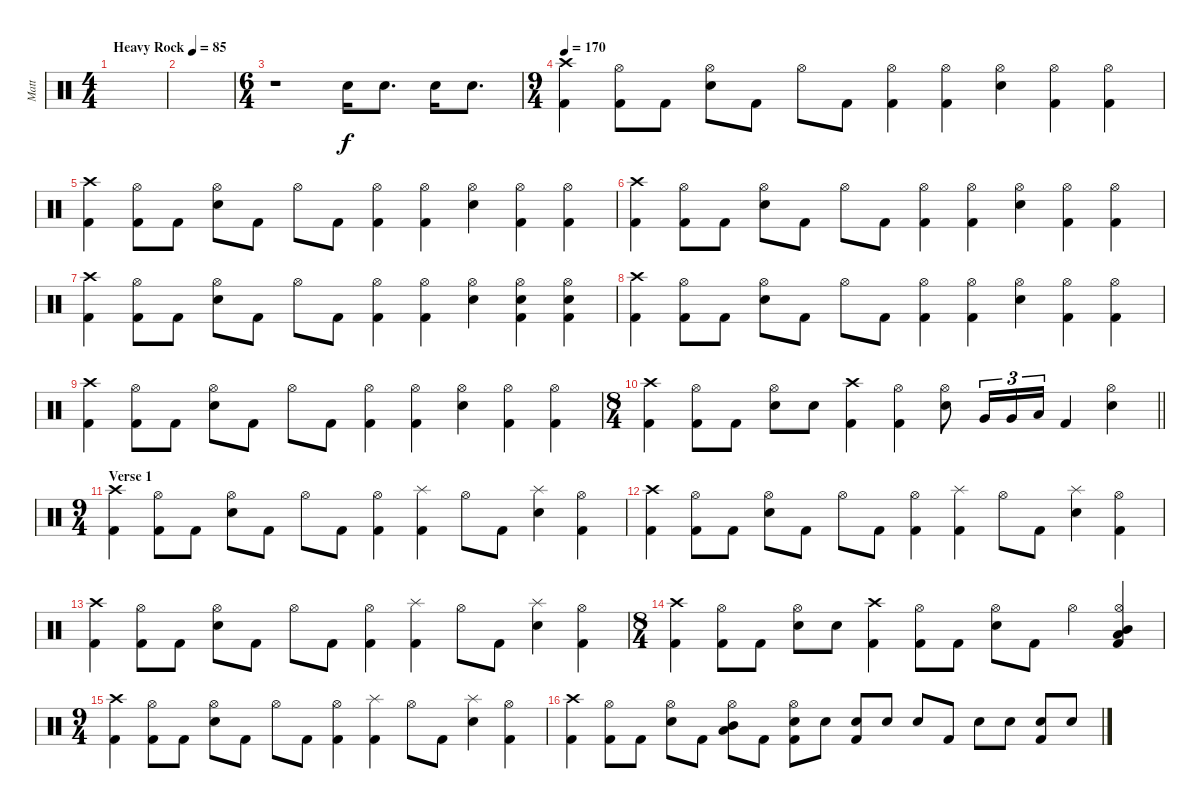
\track ("Matt" "Matt") {instrument percussion}
\staff
\articulation defaults
\ts (4 4)
\tempo (85 "Heavy Rock")
\clef neutral
\ks c
|
|
\ts (6 4)
r.1 "Snare (hit) 2".16 "Snare (hit) 2".8{d} "Snare (hit) 2".16 "Snare (hit) 2".8{d} |
\ts (9 4)
\tempo 170
("Crash high (hit)" "Kick (hit) 2").4 ("Hi-Hat (open)" "Kick (hit) 2").8 "Kick (hit) 2".8 ("Snare (hit) 2" "Hi-Hat (open)").8 "Kick (hit) 2".8 "Hi-Hat (open)".8 "Kick (hit) 2".8 ("Hi-Hat (open)" "Kick (hit) 2").4 ("Hi-Hat (open)" "Kick (hit) 2").4 ("Snare (hit) 2" "Hi-Hat (open)").4 ("Hi-Hat (open)" "Kick (hit) 2").4 ("Hi-Hat (open)" "Kick (hit) 2").4 |
("Crash high (hit)" "Kick (hit) 2").4 ("Hi-Hat (open)" "Kick (hit) 2").8 "Kick (hit) 2".8 ("Snare (hit) 2" "Hi-Hat (open)").8 "Kick (hit) 2".8 "Hi-Hat (open)".8 "Kick (hit) 2".8 ("Hi-Hat (open)" "Kick (hit) 2").4 ("Hi-Hat (open)" "Kick (hit) 2").4 ("Snare (hit) 2" "Hi-Hat (open)").4 ("Hi-Hat (open)" "Kick (hit) 2").4 ("Hi-Hat (open)" "Kick (hit) 2").4 |
("Crash high (hit)" "Kick (hit) 2").4 ("Hi-Hat (open)" "Kick (hit) 2").8 "Kick (hit) 2".8 ("Snare (hit) 2" "Hi-Hat (open)").8 "Kick (hit) 2".8 "Hi-Hat (open)".8 "Kick (hit) 2".8 ("Hi-Hat (open)" "Kick (hit) 2").4 ("Hi-Hat (open)" "Kick (hit) 2").4 ("Snare (hit) 2" "Hi-Hat (open)").4 ("Hi-Hat (open)" "Kick (hit) 2").4 ("Hi-Hat (open)" "Kick (hit) 2").4 |
("Crash high (hit)" "Kick (hit) 2").4 ("Hi-Hat (open)" "Kick (hit) 2").8 "Kick (hit) 2".8 ("Snare (hit) 2" "Hi-Hat (open)").8 "Kick (hit) 2".8 "Hi-Hat (open)".8 "Kick (hit) 2".8 ("Hi-Hat (open)" "Kick (hit) 2").4 ("Hi-Hat (open)" "Kick (hit) 2").4 ("Snare (hit) 2" "Hi-Hat (open)").4 ("Snare (hit) 2" "Hi-Hat (open)" "Kick (hit) 2").4 ("Snare (hit) 2" "Hi-Hat (open)" "Kick (hit) 2").4 |
("Crash high (hit)" "Kick (hit) 2").4 ("Hi-Hat (open)" "Kick (hit) 2").8 "Kick (hit) 2".8 ("Snare (hit) 2" "Hi-Hat (open)").8 "Kick (hit) 2".8 "Hi-Hat (open)".8 "Kick (hit) 2".8 ("Hi-Hat (open)" "Kick (hit) 2").4 ("Hi-Hat (open)" "Kick (hit) 2").4 ("Snare (hit) 2" "Hi-Hat (open)").4 ("Hi-Hat (open)" "Kick (hit) 2").4 ("Hi-Hat (open)" "Kick (hit) 2").4 |
("Crash high (hit)" "Kick (hit) 2").4 ("Hi-Hat (open)" "Kick (hit) 2").8 "Kick (hit) 2".8 ("Snare (hit) 2" "Hi-Hat (open)").8 "Kick (hit) 2".8 "Hi-Hat (open)".8 "Kick (hit) 2".8 ("Hi-Hat (open)" "Kick (hit) 2").4 ("Hi-Hat (open)" "Kick (hit) 2").4 ("Snare (hit) 2" "Hi-Hat (open)").4 ("Hi-Hat (open)" "Kick (hit) 2").4 ("Hi-Hat (open)" "Kick (hit) 2").4 |
\ts (8 4)
\barLineRight lightlight
("Crash high (hit)" "Kick (hit) 2").4 ("Hi-Hat (open)" "Kick (hit) 2").8 "Kick (hit) 2".8 ("Snare (hit) 2" "Hi-Hat (open)").8 "Snare (hit) 2".8 ("Crash high (hit)" "Kick (hit) 2").4 ("Hi-Hat (open)" "Kick (hit) 2").4 ("Snare (hit) 2" "Hi-Hat (open)").8 "Very Low Tom (hit)".16{tu (3 2)} "Very Low Tom (hit)".16{tu (3 2)} "Low Floor Tom (hit)".16{tu (3 2)} "Kick (hit) 2".4 ("Snare (hit) 2" "Hi-Hat (open)").4 |
\ts (9 4)
\section ("" "Verse 1")
("Crash high (hit)" "Kick (hit) 2").4 ("Hi-Hat (open)" "Kick (hit) 2").8 "Kick (hit) 2".8 ("Snare (hit) 2" "Hi-Hat (open)").8 "Kick (hit) 2".8 "Hi-Hat (open)".8 "Kick (hit) 2".8 ("Hi-Hat (open)" "Kick (hit) 2").4 ("Splash (hit)" "Kick (hit) 2").4 "Hi-Hat (open)".8 "Kick (hit) 2".8 ("Splash (hit)" "Snare (hit) 2").4 ("Hi-Hat (open)" "Kick (hit) 2").4 |
("Crash high (hit)" "Kick (hit) 2").4 ("Hi-Hat (open)" "Kick (hit) 2").8 "Kick (hit) 2".8 ("Snare (hit) 2" "Hi-Hat (open)").8 "Kick (hit) 2".8 "Hi-Hat (open)".8 "Kick (hit) 2".8 ("Hi-Hat (open)" "Kick (hit) 2").4 ("Splash (hit)" "Kick (hit) 2").4 "Hi-Hat (open)".8 "Kick (hit) 2".8 ("Splash (hit)" "Snare (hit) 2").4 ("Hi-Hat (open)" "Kick (hit) 2").4 |
("Crash high (hit)" "Kick (hit) 2").4 ("Hi-Hat (open)" "Kick (hit) 2").8 "Kick (hit) 2".8 ("Snare (hit) 2" "Hi-Hat (open)").8 "Kick (hit) 2".8 "Hi-Hat (open)".8 "Kick (hit) 2".8 ("Hi-Hat (open)" "Kick (hit) 2").4 ("Splash (hit)" "Kick (hit) 2").4 "Hi-Hat (open)".8 "Kick (hit) 2".8 ("Splash (hit)" "Snare (hit) 2").4 ("Hi-Hat (open)" "Kick (hit) 2").4 |
\ts (8 4)
("Crash high (hit)" "Kick (hit) 2").4 ("Hi-Hat (open)" "Kick (hit) 2").8 "Kick (hit) 2".8 ("Snare (hit) 2" "Hi-Hat (open)").8 "Snare (hit) 2".8 ("Crash high (hit)" "Kick (hit) 2").4 ("Hi-Hat (open)" "Kick (hit) 2").8 "Kick (hit) 2".8 ("Snare (hit) 2" "Hi-Hat (open)").8 "Kick (hit) 2".8 "Hi-Hat (open)".4 ("Mid Tom (hit)" "Low Floor Tom (hit)" "Hi-Hat (open)" "Kick (hit) 2").4 |
\ts (9 4)
("Crash high (hit)" "Kick (hit) 2").4 ("Hi-Hat (open)" "Kick (hit) 2").8 "Kick (hit) 2".8 ("Snare (hit) 2" "Hi-Hat (open)").8 "Kick (hit) 2".8 "Hi-Hat (open)".8 "Kick (hit) 2".8 ("Hi-Hat (open)" "Kick (hit) 2").4 ("Splash (hit)" "Kick (hit) 2").4 "Hi-Hat (open)".8 "Kick (hit) 2".8 ("Splash (hit)" "Snare (hit) 2").4 ("Hi-Hat (open)" "Kick (hit) 2").4 |
("Crash high (hit)" "Kick (hit) 2").4 ("Hi-Hat (open)" "Kick (hit) 2").8 "Kick (hit) 2".8 ("Snare (hit) 2" "Hi-Hat (open)").8 "Kick (hit) 2".8 ("Mid Tom (hit)" "Low Floor Tom (hit)" "Hi-Hat (open)").8 "Kick (hit) 2".8 ("Snare (hit) 2" "Hi-Hat (open)" "Kick (hit) 2").8 "Snare (hit) 2".8 ("Snare (hit) 2" "Kick (hit) 2").8 "Snare (hit) 2".8 "Snare (hit) 2".8 "Kick (hit) 2".8 "Snare (hit) 2".8 "Snare (hit) 2".8 ("Snare (hit) 2" "Kick (hit) 2").8 "Snare (hit) 2".8
